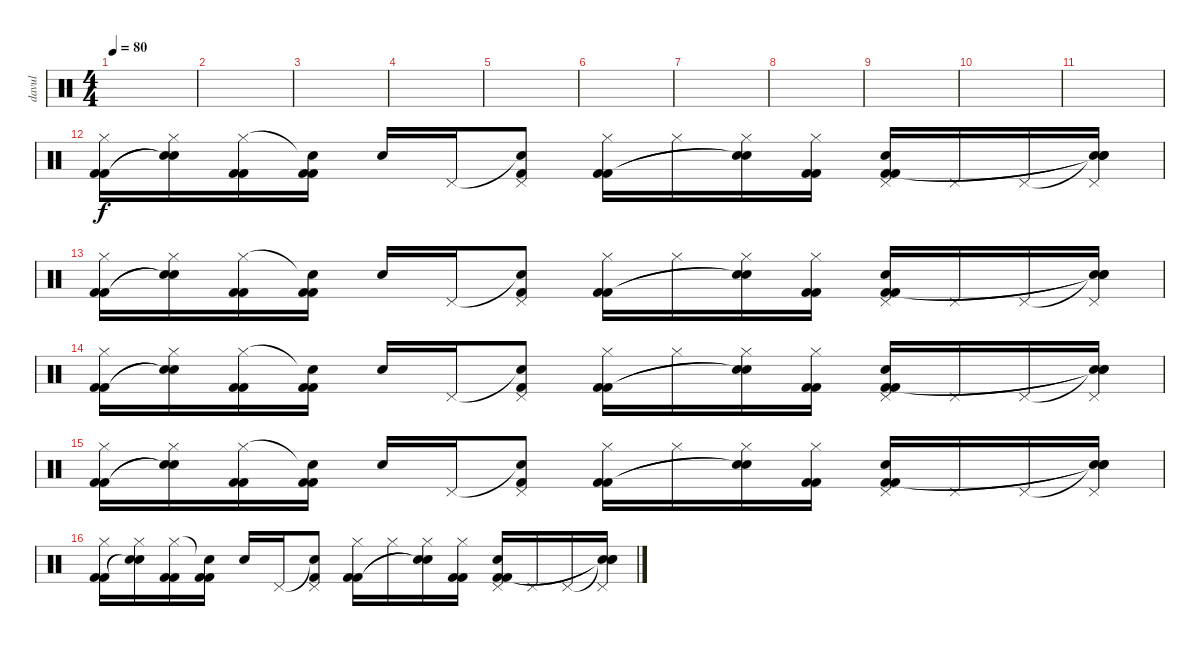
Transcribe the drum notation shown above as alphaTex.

\track ("davul" "davul") {instrument percussion}
\staff {score}
\articulation defaults
\ts (4 4)
\tempo 80
\clef neutral
\ks c
|
|
|
|
|
|
|
|
|
|
|
("Hi-Hat (closed)" "Kick (hit) 2" "Kick (hit) 2").16 ("Hi-Hat (closed)" "Snare (hit)"{t} "Snare (hit)"{t}).16 ("Hi-Hat (closed)" "Kick (hit) 2" "Kick (hit) 2").16 ("Snare (hit)"{t} "Kick (hit) 2" "Kick (hit) 2").16 "Electric Snare (hit)".16 "Pedal Hi-Hat (hit)".16 ("Snare (hit)"{t} "Pedal Hi-Hat (hit)" "Kick (hit) 2").8 ("Hi-Hat (closed)" "Kick (hit) 2" "Kick (hit) 2").16 "Hi-Hat (closed)".16 ("Hi-Hat (closed)" "Snare (hit)"{t} "Snare (hit)"{t}).16 ("Hi-Hat (closed)" "Kick (hit) 2" "Kick (hit) 2").16 ("Electric Snare (hit)" "Pedal Hi-Hat (hit)" "Kick (hit) 2" "Kick (hit) 2").16 "Pedal Hi-Hat (hit)".16 "Pedal Hi-Hat (hit)".16 ("Snare (hit)"{t} "Pedal Hi-Hat (hit)" "Snare (hit)"{t} "Snare (hit)"{t}).16 |
("Hi-Hat (closed)" "Kick (hit) 2" "Kick (hit) 2").16 ("Hi-Hat (closed)" "Snare (hit)"{t} "Snare (hit)"{t}).16 ("Hi-Hat (closed)" "Kick (hit) 2" "Kick (hit) 2").16 ("Snare (hit)"{t} "Kick (hit) 2" "Kick (hit) 2").16 "Electric Snare (hit)".16 "Pedal Hi-Hat (hit)".16 ("Snare (hit)"{t} "Pedal Hi-Hat (hit)" "Kick (hit) 2").8 ("Hi-Hat (closed)" "Kick (hit) 2" "Kick (hit) 2").16 "Hi-Hat (closed)".16 ("Hi-Hat (closed)" "Snare (hit)"{t} "Snare (hit)"{t}).16 ("Hi-Hat (closed)" "Kick (hit) 2" "Kick (hit) 2").16 ("Electric Snare (hit)" "Pedal Hi-Hat (hit)" "Kick (hit) 2" "Kick (hit) 2").16 "Pedal Hi-Hat (hit)".16 "Pedal Hi-Hat (hit)".16 ("Snare (hit)"{t} "Pedal Hi-Hat (hit)" "Snare (hit)"{t} "Snare (hit)"{t}).16 |
("Hi-Hat (closed)" "Kick (hit) 2" "Kick (hit) 2").16 ("Hi-Hat (closed)" "Snare (hit)"{t} "Snare (hit)"{t}).16 ("Hi-Hat (closed)" "Kick (hit) 2" "Kick (hit) 2").16 ("Snare (hit)"{t} "Kick (hit) 2" "Kick (hit) 2").16 "Electric Snare (hit)".16 "Pedal Hi-Hat (hit)".16 ("Snare (hit)"{t} "Pedal Hi-Hat (hit)" "Kick (hit) 2").8 ("Hi-Hat (closed)" "Kick (hit) 2" "Kick (hit) 2").16 "Hi-Hat (closed)".16 ("Hi-Hat (closed)" "Snare (hit)"{t} "Snare (hit)"{t}).16 ("Hi-Hat (closed)" "Kick (hit) 2" "Kick (hit) 2").16 ("Electric Snare (hit)" "Pedal Hi-Hat (hit)" "Kick (hit) 2" "Kick (hit) 2").16 "Pedal Hi-Hat (hit)".16 "Pedal Hi-Hat (hit)".16 ("Snare (hit)"{t} "Pedal Hi-Hat (hit)" "Snare (hit)"{t} "Snare (hit)"{t}).16 |
("Hi-Hat (closed)" "Kick (hit) 2" "Kick (hit) 2").16 ("Hi-Hat (closed)" "Snare (hit)"{t} "Snare (hit)"{t}).16 ("Hi-Hat (closed)" "Kick (hit) 2" "Kick (hit) 2").16 ("Snare (hit)"{t} "Kick (hit) 2" "Kick (hit) 2").16 "Electric Snare (hit)".16 "Pedal Hi-Hat (hit)".16 ("Snare (hit)"{t} "Pedal Hi-Hat (hit)" "Kick (hit) 2").8 ("Hi-Hat (closed)" "Kick (hit) 2" "Kick (hit) 2").16 "Hi-Hat (closed)".16 ("Hi-Hat (closed)" "Snare (hit)"{t} "Snare (hit)"{t}).16 ("Hi-Hat (closed)" "Kick (hit) 2" "Kick (hit) 2").16 ("Electric Snare (hit)" "Pedal Hi-Hat (hit)" "Kick (hit) 2" "Kick (hit) 2").16 "Pedal Hi-Hat (hit)".16 "Pedal Hi-Hat (hit)".16 ("Snare (hit)"{t} "Pedal Hi-Hat (hit)" "Snare (hit)"{t} "Snare (hit)"{t}).16 |
("Hi-Hat (closed)" "Kick (hit) 2" "Kick (hit) 2").16 ("Hi-Hat (closed)" "Snare (hit)"{t} "Snare (hit)"{t}).16 ("Hi-Hat (closed)" "Kick (hit) 2" "Kick (hit) 2").16 ("Snare (hit)"{t} "Kick (hit) 2" "Kick (hit) 2").16 "Electric Snare (hit)".16 "Pedal Hi-Hat (hit)".16 ("Snare (hit)"{t} "Pedal Hi-Hat (hit)" "Kick (hit) 2").8 ("Hi-Hat (closed)" "Kick (hit) 2" "Kick (hit) 2").16 "Hi-Hat (closed)".16 ("Hi-Hat (closed)" "Snare (hit)"{t} "Snare (hit)"{t}).16 ("Hi-Hat (closed)" "Kick (hit) 2" "Kick (hit) 2").16 ("Electric Snare (hit)" "Pedal Hi-Hat (hit)" "Kick (hit) 2" "Kick (hit) 2").16 "Pedal Hi-Hat (hit)".16 "Pedal Hi-Hat (hit)".16 ("Snare (hit)"{t} "Pedal Hi-Hat (hit)" "Snare (hit)"{t} "Snare (hit)"{t}).16
